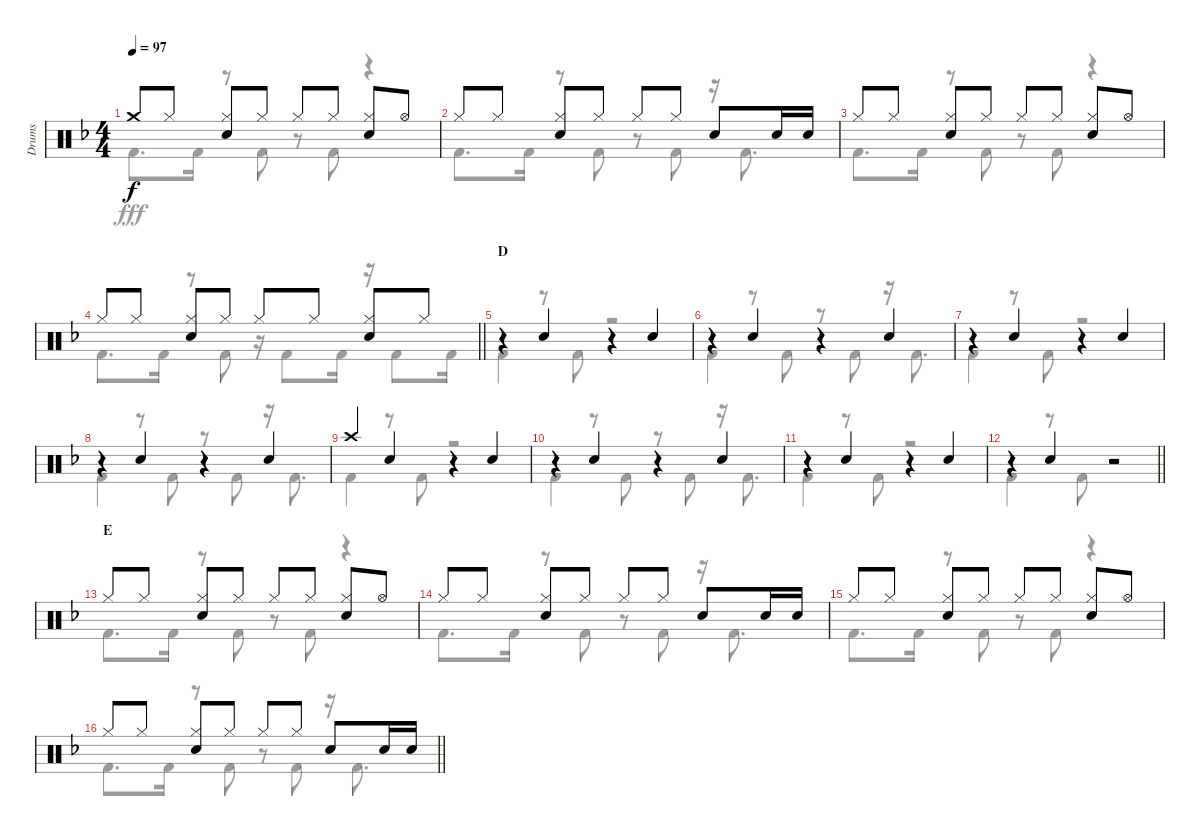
\track ("Drums" "Drums") {instrument percussion}
\staff {score}
\articulation defaults
\voice
\ts (4 4)
\tempo 97
\clef neutral
\ks f "Crash medium (hit)".8{dy f} "Hi-Hat (closed)".8
("Hi-Hat (closed)" "Snare (hit) 2").8 "Hi-Hat (closed)".8 "Hi-Hat (closed)".8 "Hi-Hat (closed)".8 ("Hi-Hat (closed)" "Snare (hit) 2").8 "Hi-Hat (open)".8 |
"Hi-Hat (closed)".8 "Hi-Hat (closed)".8 ("Hi-Hat (closed)" "Snare (hit) 2").8 "Hi-Hat (closed)".8 "Hi-Hat (closed)".8 "Hi-Hat (closed)".8 "Snare (hit) 2".8 "Snare (hit) 2".16 "Snare (hit) 2".16 |
"Hi-Hat (closed)".8 "Hi-Hat (closed)".8 ("Hi-Hat (closed)" "Snare (hit) 2").8 "Hi-Hat (closed)".8 "Hi-Hat (closed)".8 "Hi-Hat (closed)".8 ("Hi-Hat (closed)" "Snare (hit) 2").8 "Hi-Hat (open)".8 |
\barLineRight lightlight "Hi-Hat (closed)".8 "Hi-Hat (closed)".8
("Hi-Hat (closed)" "Snare (hit) 2").8 "Hi-Hat (closed)".8 "Hi-Hat (closed)".8 "Hi-Hat (closed)".8 ("Hi-Hat (closed)" "Snare (hit) 2").8 "Hi-Hat (closed)".8 |
\section ("" "D")
r.4 "Snare (hit) 2".4 r.4 "Snare (hit) 2".4 |
r.4 "Snare (hit) 2".4 r.4 "Snare (hit) 2".4 |
r.4 "Snare (hit) 2".4 r.4 "Snare (hit) 2".4 |
r.4 "Snare (hit) 2".4 r.4 "Snare (hit) 2".4 |
"Crash high (hit)".4 "Snare (hit) 2".4 r.4 "Snare (hit) 2".4 |
r.4 "Snare (hit) 2".4 r.4 "Snare (hit) 2".4 |
r.4 "Snare (hit) 2".4 r.4 "Snare (hit) 2".4 |
\barLineRight lightlight
r.4 "Snare (hit) 2".4 r.2 |
\section ("" "E")
"Hi-Hat (closed)".8 "Hi-Hat (closed)".8 ("Hi-Hat (closed)" "Snare (hit) 2").8 "Hi-Hat (closed)".8 "Hi-Hat (closed)".8 "Hi-Hat (closed)".8 ("Hi-Hat (closed)" "Snare (hit) 2").8 "Hi-Hat (open)".8 |
"Hi-Hat (closed)".8 "Hi-Hat (closed)".8 ("Hi-Hat (closed)" "Snare (hit) 2").8 "Hi-Hat (closed)".8 "Hi-Hat (closed)".8 "Hi-Hat (closed)".8 "Snare (hit) 2".8 "Snare (hit) 2".16 "Snare (hit) 2".16 |
"Hi-Hat (closed)".8 "Hi-Hat (closed)".8 ("Hi-Hat (closed)" "Snare (hit) 2").8 "Hi-Hat (closed)".8 "Hi-Hat (closed)".8 "Hi-Hat (closed)".8 ("Hi-Hat (closed)" "Snare (hit) 2").8 "Hi-Hat (open)".8 |
\barLineRight lightlight "Hi-Hat (closed)".8 "Hi-Hat (closed)".8
("Hi-Hat (closed)" "Snare (hit) 2").8 "Hi-Hat (closed)".8 "Hi-Hat (closed)".8 "Hi-Hat (closed)".8 "Snare (hit) 2".8 "Snare (hit) 2".16 "Snare (hit) 2".16
\voice
\clef neutral
\ottava regular
\simile none
\ks f "Kick (hit) 2".8{d dy fff} "Kick (hit) 2".16
r.8 "Kick (hit) 2".8 r.8 "Kick (hit) 2".8 r.4 |
"Kick (hit) 2".8{d} "Kick (hit) 2".16 r.8 "Kick (hit) 2".8 r.8 "Kick (hit) 2".8 r.16 "Kick (hit) 2".8{d} |
"Kick (hit) 2".8{d} "Kick (hit) 2".16 r.8 "Kick (hit) 2".8 r.8 "Kick (hit) 2".8 r.4 |
\barLineRight lightlight "Kick (hit) 2".8{d} "Kick (hit) 2".16
r.8 "Kick (hit) 2".8 r.16 "Kick (hit) 2".8 "Kick (hit) 2".16 r.16 "Kick (hit) 2".8 "Kick (hit) 2".16 |
"Kick (hit) 2".4 r.8 "Kick (hit) 2".8 r.2 |
"Kick (hit) 2".4 r.8 "Kick (hit) 2".8 r.8 "Kick (hit) 2".8 r.16 "Kick (hit) 2".8{d} |
"Kick (hit) 2".4 r.8 "Kick (hit) 2".8 r.2 |
"Kick (hit) 2".4 r.8 "Kick (hit) 2".8 r.8 "Kick (hit) 2".8 r.16 "Kick (hit) 2".8{d} |
"Kick (hit) 2".4 r.8 "Kick (hit) 2".8 r.2 |
"Kick (hit) 2".4 r.8 "Kick (hit) 2".8 r.8 "Kick (hit) 2".8 r.16 "Kick (hit) 2".8{d} |
"Kick (hit) 2".4 r.8 "Kick (hit) 2".8 r.2 |
\barLineRight lightlight "Kick (hit) 2".4
r.8 "Kick (hit) 2".8 r.2 |
"Kick (hit) 2".8{d} "Kick (hit) 2".16 r.8 "Kick (hit) 2".8 r.8 "Kick (hit) 2".8 r.4 |
"Kick (hit) 2".8{d} "Kick (hit) 2".16 r.8 "Kick (hit) 2".8 r.8 "Kick (hit) 2".8 r.16 "Kick (hit) 2".8{d} |
"Kick (hit) 2".8{d} "Kick (hit) 2".16 r.8 "Kick (hit) 2".8 r.8 "Kick (hit) 2".8 r.4 |
\barLineRight lightlight "Kick (hit) 2".8{d} "Kick (hit) 2".16
r.8 "Kick (hit) 2".8 r.8 "Kick (hit) 2".8 r.16 "Kick (hit) 2".8{d}
